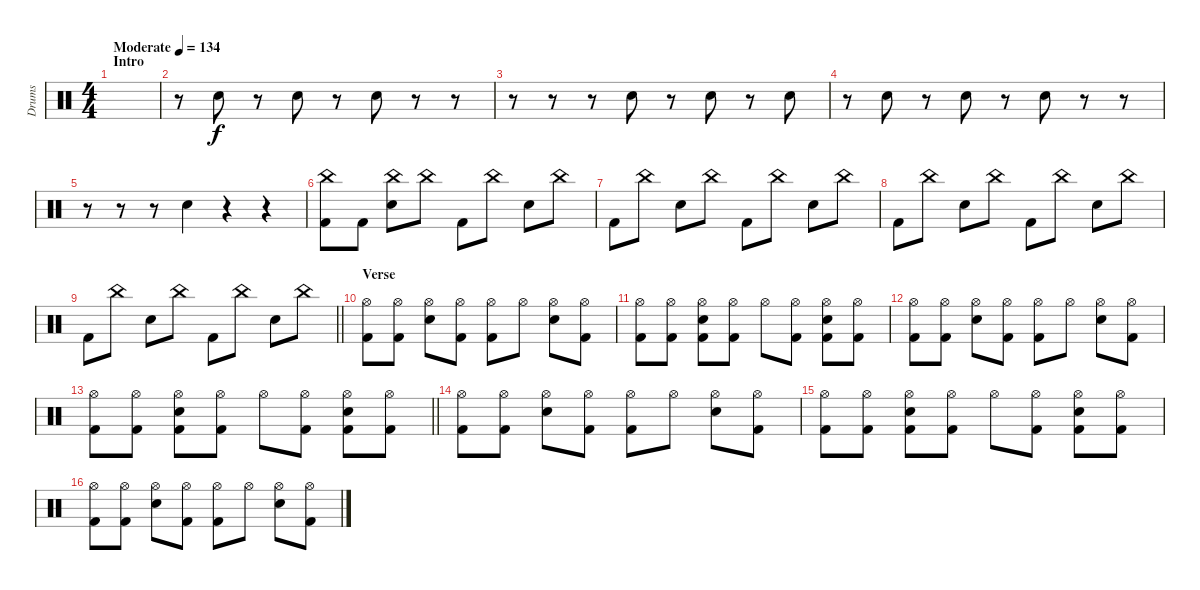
\track ("Drums" "Drums") {instrument percussion}
\staff {score}
\articulation defaults
\ts (4 4)
\section ("" "Intro")
\tempo (134 "Moderate")
\clef neutral
\ks c
|
r.8 "Electric Snare (hit)".8 r.8 "Electric Snare (hit)".8 r.8 "Electric Snare (hit)".8 r.8 r.8 |
r.8 r.8 r.8 "Electric Snare (hit)".8 r.8 "Electric Snare (hit)".8 r.8 "Electric Snare (hit)".8 |
r.8 "Electric Snare (hit)".8 r.8 "Electric Snare (hit)".8 r.8 "Electric Snare (hit)".8 r.8 r.8 |
r.8 r.8 r.8 "Electric Snare (hit)".4 r.4 r.4 |
("China (hit)" "Kick (hit) 2").8 "Kick (hit) 2".8 ("China (hit)" "Electric Snare (hit)").8 "China (hit)".8 "Kick (hit) 2".8 "China (hit)".8 "Electric Snare (hit)".8 "China (hit)".8 |
"Kick (hit) 2".8 "China (hit)".8 "Electric Snare (hit)".8 "China (hit)".8 "Kick (hit) 2".8 "China (hit)".8 "Electric Snare (hit)".8 "China (hit)".8 |
"Kick (hit) 2".8 "China (hit)".8 "Electric Snare (hit)".8 "China (hit)".8 "Kick (hit) 2".8 "China (hit)".8 "Electric Snare (hit)".8 "China (hit)".8 |
\barLineRight lightlight "Kick (hit) 2".8 "China (hit)".8 "Electric Snare (hit)".8 "China (hit)".8 "Kick (hit) 2".8 "China (hit)".8 "Electric Snare (hit)".8 "China (hit)".8
|
\section ("" "Verse")
("Hi-Hat (open)" "Kick (hit) 2").8 ("Hi-Hat (open)" "Kick (hit) 2").8 ("Hi-Hat (open)" "Electric Snare (hit)").8 ("Hi-Hat (open)" "Kick (hit) 2").8 ("Hi-Hat (open)" "Kick (hit) 2").8 "Hi-Hat (open)".8 ("Hi-Hat (open)" "Electric Snare (hit)").8 ("Hi-Hat (open)" "Kick (hit) 2").8 |
("Hi-Hat (open)" "Kick (hit) 2").8 ("Hi-Hat (open)" "Kick (hit) 2").8 ("Hi-Hat (open)" "Electric Snare (hit)" "Kick (hit) 2").8 ("Hi-Hat (open)" "Kick (hit) 2").8 "Hi-Hat (open)".8 ("Hi-Hat (open)" "Kick (hit) 2").8 ("Hi-Hat (open)" "Electric Snare (hit)" "Kick (hit) 2").8 ("Hi-Hat (open)" "Kick (hit) 2").8 |
("Hi-Hat (open)" "Kick (hit) 2").8 ("Hi-Hat (open)" "Kick (hit) 2").8 ("Hi-Hat (open)" "Electric Snare (hit)").8 ("Hi-Hat (open)" "Kick (hit) 2").8 ("Hi-Hat (open)" "Kick (hit) 2").8 "Hi-Hat (open)".8 ("Hi-Hat (open)" "Electric Snare (hit)").8 ("Hi-Hat (open)" "Kick (hit) 2").8 |
\barLineRight lightlight
("Hi-Hat (open)" "Kick (hit) 2").8 ("Hi-Hat (open)" "Kick (hit) 2").8 ("Hi-Hat (open)" "Electric Snare (hit)" "Kick (hit) 2").8 ("Hi-Hat (open)" "Kick (hit) 2").8 "Hi-Hat (open)".8 ("Hi-Hat (open)" "Kick (hit) 2").8 ("Hi-Hat (open)" "Electric Snare (hit)" "Kick (hit) 2").8 ("Hi-Hat (open)" "Kick (hit) 2").8 |
("Hi-Hat (open)" "Kick (hit) 2").8 ("Hi-Hat (open)" "Kick (hit) 2").8 ("Hi-Hat (open)" "Electric Snare (hit)").8 ("Hi-Hat (open)" "Kick (hit) 2").8 ("Hi-Hat (open)" "Kick (hit) 2").8 "Hi-Hat (open)".8 ("Hi-Hat (open)" "Electric Snare (hit)").8 ("Hi-Hat (open)" "Kick (hit) 2").8 |
("Hi-Hat (open)" "Kick (hit) 2").8 ("Hi-Hat (open)" "Kick (hit) 2").8 ("Hi-Hat (open)" "Electric Snare (hit)" "Kick (hit) 2").8 ("Hi-Hat (open)" "Kick (hit) 2").8 "Hi-Hat (open)".8 ("Hi-Hat (open)" "Kick (hit) 2").8 ("Hi-Hat (open)" "Electric Snare (hit)" "Kick (hit) 2").8 ("Hi-Hat (open)" "Kick (hit) 2").8 |
("Hi-Hat (open)" "Kick (hit) 2").8 ("Hi-Hat (open)" "Kick (hit) 2").8 ("Hi-Hat (open)" "Electric Snare (hit)").8 ("Hi-Hat (open)" "Kick (hit) 2").8 ("Hi-Hat (open)" "Kick (hit) 2").8 "Hi-Hat (open)".8 ("Hi-Hat (open)" "Electric Snare (hit)").8 ("Hi-Hat (open)" "Kick (hit) 2").8
